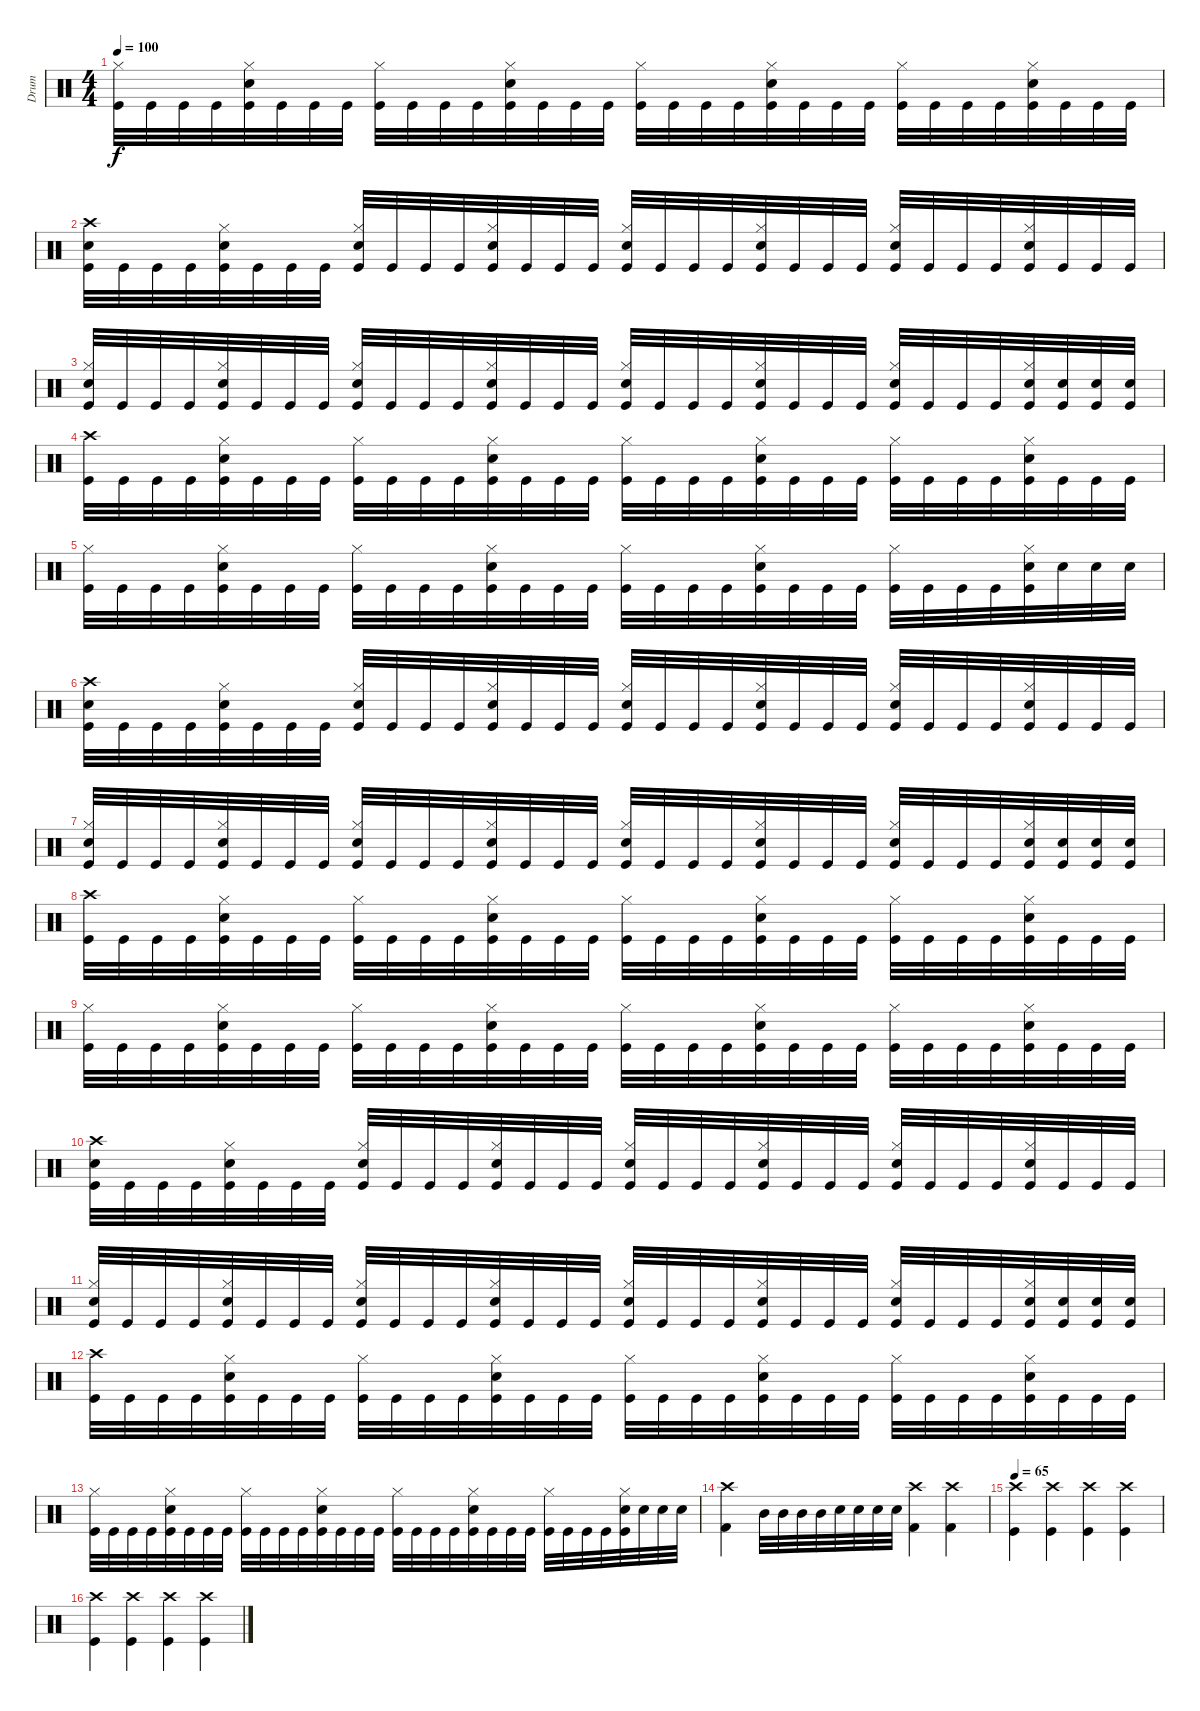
\track ("Drum" "Drum") {instrument percussion}
\staff {score}
\articulation defaults
\ts (4 4)
\tempo 100
\clef neutral
\ks c
("Kick (hit)" "Hi-Hat (closed)").32{dy f} "Kick (hit)".32 "Kick (hit)".32 "Kick (hit)".32 ("Kick (hit)" "Snare (hit) 2" "Hi-Hat (closed)").32 "Kick (hit)".32 "Kick (hit)".32 "Kick (hit)".32 ("Kick (hit)" "Hi-Hat (closed)").32 "Kick (hit)".32 "Kick (hit)".32 "Kick (hit)".32 ("Kick (hit)" "Hi-Hat (closed)" "Snare (hit) 2").32 "Kick (hit)".32 "Kick (hit)".32 "Kick (hit)".32 ("Kick (hit)" "Hi-Hat (closed)").32 "Kick (hit)".32 "Kick (hit)".32 "Kick (hit)".32 ("Snare (hit) 2" "Kick (hit)" "Hi-Hat (closed)").32 "Kick (hit)".32 "Kick (hit)".32 "Kick (hit)".32 ("Kick (hit)" "Hi-Hat (closed)").32 "Kick (hit)".32 "Kick (hit)".32 "Kick (hit)".32 ("Kick (hit)" "Snare (hit) 2" "Hi-Hat (closed)").32 "Kick (hit)".32 "Kick (hit)".32 "Kick (hit)".32 |
("Kick (hit)" "Snare (hit) 2" "Crash high (hit)").32 "Kick (hit)".32 "Kick (hit)".32 "Kick (hit)".32 ("Kick (hit)" "Snare (hit) 2" "Hi-Hat (closed)").32 "Kick (hit)".32 "Kick (hit)".32 "Kick (hit)".32 ("Snare (hit) 2" "Kick (hit)" "Hi-Hat (closed)").32 "Kick (hit)".32 "Kick (hit)".32 "Kick (hit)".32 ("Kick (hit)" "Hi-Hat (closed)" "Snare (hit) 2").32 "Kick (hit)".32 "Kick (hit)".32 "Kick (hit)".32 ("Kick (hit)" "Snare (hit) 2" "Hi-Hat (closed)").32 "Kick (hit)".32 "Kick (hit)".32 "Kick (hit)".32 ("Snare (hit) 2" "Kick (hit)" "Hi-Hat (closed)").32 "Kick (hit)".32 "Kick (hit)".32 "Kick (hit)".32 ("Kick (hit)" "Snare (hit) 2" "Hi-Hat (closed)").32 "Kick (hit)".32 "Kick (hit)".32 "Kick (hit)".32 ("Kick (hit)" "Snare (hit) 2" "Hi-Hat (closed)").32 "Kick (hit)".32 "Kick (hit)".32 "Kick (hit)".32 |
("Kick (hit)" "Snare (hit) 2" "Hi-Hat (closed)").32 "Kick (hit)".32 "Kick (hit)".32 "Kick (hit)".32 ("Kick (hit)" "Snare (hit) 2" "Hi-Hat (closed)").32 "Kick (hit)".32 "Kick (hit)".32 "Kick (hit)".32 ("Snare (hit) 2" "Kick (hit)" "Hi-Hat (closed)").32 "Kick (hit)".32 "Kick (hit)".32 "Kick (hit)".32 ("Kick (hit)" "Hi-Hat (closed)" "Snare (hit) 2").32 "Kick (hit)".32 "Kick (hit)".32 "Kick (hit)".32 ("Kick (hit)" "Snare (hit) 2" "Hi-Hat (closed)").32 "Kick (hit)".32 "Kick (hit)".32 "Kick (hit)".32 ("Snare (hit) 2" "Kick (hit)" "Hi-Hat (closed)").32 "Kick (hit)".32 "Kick (hit)".32 "Kick (hit)".32 ("Kick (hit)" "Snare (hit) 2" "Hi-Hat (closed)").32 "Kick (hit)".32 "Kick (hit)".32 "Kick (hit)".32 ("Kick (hit)" "Hi-Hat (closed)" "Snare (hit) 2").32 ("Kick (hit)" "Snare (hit) 2").32 ("Kick (hit)" "Snare (hit) 2").32 ("Kick (hit)" "Snare (hit) 2").32 |
("Kick (hit)" "Crash high (hit)").32 "Kick (hit)".32 "Kick (hit)".32 "Kick (hit)".32 ("Kick (hit)" "Snare (hit) 2" "Hi-Hat (closed)").32 "Kick (hit)".32 "Kick (hit)".32 "Kick (hit)".32 ("Kick (hit)" "Hi-Hat (closed)").32 "Kick (hit)".32 "Kick (hit)".32 "Kick (hit)".32 ("Kick (hit)" "Hi-Hat (closed)" "Snare (hit) 2").32 "Kick (hit)".32 "Kick (hit)".32 "Kick (hit)".32 ("Kick (hit)" "Hi-Hat (closed)").32 "Kick (hit)".32 "Kick (hit)".32 "Kick (hit)".32 ("Snare (hit) 2" "Kick (hit)" "Hi-Hat (closed)").32 "Kick (hit)".32 "Kick (hit)".32 "Kick (hit)".32 ("Kick (hit)" "Hi-Hat (closed)").32 "Kick (hit)".32 "Kick (hit)".32 "Kick (hit)".32 ("Kick (hit)" "Snare (hit) 2" "Hi-Hat (closed)").32 "Kick (hit)".32 "Kick (hit)".32 "Kick (hit)".32 |
("Kick (hit)" "Hi-Hat (closed)").32 "Kick (hit)".32 "Kick (hit)".32 "Kick (hit)".32 ("Kick (hit)" "Snare (hit) 2" "Hi-Hat (closed)").32 "Kick (hit)".32 "Kick (hit)".32 "Kick (hit)".32 ("Kick (hit)" "Hi-Hat (closed)").32 "Kick (hit)".32 "Kick (hit)".32 "Kick (hit)".32 ("Kick (hit)" "Hi-Hat (closed)" "Snare (hit) 2").32 "Kick (hit)".32 "Kick (hit)".32 "Kick (hit)".32 ("Kick (hit)" "Hi-Hat (closed)").32 "Kick (hit)".32 "Kick (hit)".32 "Kick (hit)".32 ("Snare (hit) 2" "Kick (hit)" "Hi-Hat (closed)").32 "Kick (hit)".32 "Kick (hit)".32 "Kick (hit)".32 ("Kick (hit)" "Hi-Hat (closed)").32 "Kick (hit)".32 "Kick (hit)".32 "Kick (hit)".32 ("Kick (hit)" "Snare (hit) 2" "Hi-Hat (closed)").32 "Snare (hit) 2".32 "Snare (hit) 2".32 "Snare (hit) 2".32 |
("Kick (hit)" "Snare (hit) 2" "Crash high (hit)").32 "Kick (hit)".32 "Kick (hit)".32 "Kick (hit)".32 ("Kick (hit)" "Snare (hit) 2" "Hi-Hat (closed)").32 "Kick (hit)".32 "Kick (hit)".32 "Kick (hit)".32 ("Snare (hit) 2" "Kick (hit)" "Hi-Hat (closed)").32 "Kick (hit)".32 "Kick (hit)".32 "Kick (hit)".32 ("Kick (hit)" "Hi-Hat (closed)" "Snare (hit) 2").32 "Kick (hit)".32 "Kick (hit)".32 "Kick (hit)".32 ("Kick (hit)" "Snare (hit) 2" "Hi-Hat (closed)").32 "Kick (hit)".32 "Kick (hit)".32 "Kick (hit)".32 ("Snare (hit) 2" "Kick (hit)" "Hi-Hat (closed)").32 "Kick (hit)".32 "Kick (hit)".32 "Kick (hit)".32 ("Kick (hit)" "Snare (hit) 2" "Hi-Hat (closed)").32 "Kick (hit)".32 "Kick (hit)".32 "Kick (hit)".32 ("Kick (hit)" "Snare (hit) 2" "Hi-Hat (closed)").32 "Kick (hit)".32 "Kick (hit)".32 "Kick (hit)".32 |
("Kick (hit)" "Snare (hit) 2" "Hi-Hat (closed)").32 "Kick (hit)".32 "Kick (hit)".32 "Kick (hit)".32 ("Kick (hit)" "Snare (hit) 2" "Hi-Hat (closed)").32 "Kick (hit)".32 "Kick (hit)".32 "Kick (hit)".32 ("Snare (hit) 2" "Kick (hit)" "Hi-Hat (closed)").32 "Kick (hit)".32 "Kick (hit)".32 "Kick (hit)".32 ("Kick (hit)" "Hi-Hat (closed)" "Snare (hit) 2").32 "Kick (hit)".32 "Kick (hit)".32 "Kick (hit)".32 ("Kick (hit)" "Snare (hit) 2" "Hi-Hat (closed)").32 "Kick (hit)".32 "Kick (hit)".32 "Kick (hit)".32 ("Snare (hit) 2" "Kick (hit)" "Hi-Hat (closed)").32 "Kick (hit)".32 "Kick (hit)".32 "Kick (hit)".32 ("Kick (hit)" "Snare (hit) 2" "Hi-Hat (closed)").32 "Kick (hit)".32 "Kick (hit)".32 "Kick (hit)".32 ("Kick (hit)" "Snare (hit) 2" "Hi-Hat (closed)").32 ("Kick (hit)" "Snare (hit) 2").32 ("Kick (hit)" "Snare (hit) 2").32 ("Kick (hit)" "Snare (hit) 2").32 |
("Kick (hit)" "Crash high (hit)").32 "Kick (hit)".32 "Kick (hit)".32 "Kick (hit)".32 ("Kick (hit)" "Snare (hit) 2" "Hi-Hat (closed)").32 "Kick (hit)".32 "Kick (hit)".32 "Kick (hit)".32 ("Kick (hit)" "Hi-Hat (closed)").32 "Kick (hit)".32 "Kick (hit)".32 "Kick (hit)".32 ("Kick (hit)" "Hi-Hat (closed)" "Snare (hit) 2").32 "Kick (hit)".32 "Kick (hit)".32 "Kick (hit)".32 ("Kick (hit)" "Hi-Hat (closed)").32 "Kick (hit)".32 "Kick (hit)".32 "Kick (hit)".32 ("Snare (hit) 2" "Kick (hit)" "Hi-Hat (closed)").32 "Kick (hit)".32 "Kick (hit)".32 "Kick (hit)".32 ("Kick (hit)" "Hi-Hat (closed)").32 "Kick (hit)".32 "Kick (hit)".32 "Kick (hit)".32 ("Kick (hit)" "Snare (hit) 2" "Hi-Hat (closed)").32 "Kick (hit)".32 "Kick (hit)".32 "Kick (hit)".32 |
("Kick (hit)" "Hi-Hat (closed)").32 "Kick (hit)".32 "Kick (hit)".32 "Kick (hit)".32 ("Kick (hit)" "Snare (hit) 2" "Hi-Hat (closed)").32 "Kick (hit)".32 "Kick (hit)".32 "Kick (hit)".32 ("Kick (hit)" "Hi-Hat (closed)").32 "Kick (hit)".32 "Kick (hit)".32 "Kick (hit)".32 ("Kick (hit)" "Hi-Hat (closed)" "Snare (hit) 2").32 "Kick (hit)".32 "Kick (hit)".32 "Kick (hit)".32 ("Kick (hit)" "Hi-Hat (closed)").32 "Kick (hit)".32 "Kick (hit)".32 "Kick (hit)".32 ("Snare (hit) 2" "Kick (hit)" "Hi-Hat (closed)").32 "Kick (hit)".32 "Kick (hit)".32 "Kick (hit)".32 ("Kick (hit)" "Hi-Hat (closed)").32 "Kick (hit)".32 "Kick (hit)".32 "Kick (hit)".32 ("Kick (hit)" "Snare (hit) 2" "Hi-Hat (closed)").32 "Kick (hit)".32 "Kick (hit)".32 "Kick (hit)".32 |
("Kick (hit)" "Snare (hit) 2" "Crash high (hit)").32 "Kick (hit)".32 "Kick (hit)".32 "Kick (hit)".32 ("Kick (hit)" "Snare (hit) 2" "Hi-Hat (closed)").32 "Kick (hit)".32 "Kick (hit)".32 "Kick (hit)".32 ("Snare (hit) 2" "Kick (hit)" "Hi-Hat (closed)").32 "Kick (hit)".32 "Kick (hit)".32 "Kick (hit)".32 ("Kick (hit)" "Hi-Hat (closed)" "Snare (hit) 2").32 "Kick (hit)".32 "Kick (hit)".32 "Kick (hit)".32 ("Kick (hit)" "Snare (hit) 2" "Hi-Hat (closed)").32 "Kick (hit)".32 "Kick (hit)".32 "Kick (hit)".32 ("Snare (hit) 2" "Kick (hit)" "Hi-Hat (closed)").32 "Kick (hit)".32 "Kick (hit)".32 "Kick (hit)".32 ("Kick (hit)" "Snare (hit) 2" "Hi-Hat (closed)").32 "Kick (hit)".32 "Kick (hit)".32 "Kick (hit)".32 ("Kick (hit)" "Snare (hit) 2" "Hi-Hat (closed)").32 "Kick (hit)".32 "Kick (hit)".32 "Kick (hit)".32 |
("Kick (hit)" "Snare (hit) 2" "Hi-Hat (closed)").32 "Kick (hit)".32 "Kick (hit)".32 "Kick (hit)".32 ("Kick (hit)" "Snare (hit) 2" "Hi-Hat (closed)").32 "Kick (hit)".32 "Kick (hit)".32 "Kick (hit)".32 ("Snare (hit) 2" "Kick (hit)" "Hi-Hat (closed)").32 "Kick (hit)".32 "Kick (hit)".32 "Kick (hit)".32 ("Kick (hit)" "Hi-Hat (closed)" "Snare (hit) 2").32 "Kick (hit)".32 "Kick (hit)".32 "Kick (hit)".32 ("Kick (hit)" "Snare (hit) 2" "Hi-Hat (closed)").32 "Kick (hit)".32 "Kick (hit)".32 "Kick (hit)".32 ("Snare (hit) 2" "Kick (hit)" "Hi-Hat (closed)").32 "Kick (hit)".32 "Kick (hit)".32 "Kick (hit)".32 ("Kick (hit)" "Snare (hit) 2" "Hi-Hat (closed)").32 "Kick (hit)".32 "Kick (hit)".32 "Kick (hit)".32 ("Kick (hit)" "Hi-Hat (closed)" "Snare (hit) 2").32 ("Kick (hit)" "Snare (hit) 2").32 ("Kick (hit)" "Snare (hit) 2").32 ("Kick (hit)" "Snare (hit) 2").32 |
("Kick (hit)" "Crash high (hit)").32 "Kick (hit)".32 "Kick (hit)".32 "Kick (hit)".32 ("Kick (hit)" "Snare (hit) 2" "Hi-Hat (closed)").32 "Kick (hit)".32 "Kick (hit)".32 "Kick (hit)".32 ("Kick (hit)" "Hi-Hat (closed)").32 "Kick (hit)".32 "Kick (hit)".32 "Kick (hit)".32 ("Kick (hit)" "Hi-Hat (closed)" "Snare (hit) 2").32 "Kick (hit)".32 "Kick (hit)".32 "Kick (hit)".32 ("Kick (hit)" "Hi-Hat (closed)").32 "Kick (hit)".32 "Kick (hit)".32 "Kick (hit)".32 ("Snare (hit) 2" "Kick (hit)" "Hi-Hat (closed)").32 "Kick (hit)".32 "Kick (hit)".32 "Kick (hit)".32 ("Kick (hit)" "Hi-Hat (closed)").32 "Kick (hit)".32 "Kick (hit)".32 "Kick (hit)".32 ("Kick (hit)" "Snare (hit) 2" "Hi-Hat (closed)").32 "Kick (hit)".32 "Kick (hit)".32 "Kick (hit)".32 |
("Kick (hit)" "Hi-Hat (closed)").32 "Kick (hit)".32 "Kick (hit)".32 "Kick (hit)".32 ("Kick (hit)" "Snare (hit) 2" "Hi-Hat (closed)").32 "Kick (hit)".32 "Kick (hit)".32 "Kick (hit)".32 ("Kick (hit)" "Hi-Hat (closed)").32 "Kick (hit)".32 "Kick (hit)".32 "Kick (hit)".32 ("Kick (hit)" "Hi-Hat (closed)" "Snare (hit) 2").32 "Kick (hit)".32 "Kick (hit)".32 "Kick (hit)".32 ("Kick (hit)" "Hi-Hat (closed)").32 "Kick (hit)".32 "Kick (hit)".32 "Kick (hit)".32 ("Snare (hit) 2" "Kick (hit)" "Hi-Hat (closed)").32 "Kick (hit)".32 "Kick (hit)".32 "Kick (hit)".32 ("Kick (hit)" "Hi-Hat (closed)").32 "Kick (hit)".32 "Kick (hit)".32 "Kick (hit)".32 ("Kick (hit)" "Snare (hit) 2" "Hi-Hat (closed)").32 "Snare (hit) 2".32 "Snare (hit) 2".32 "Snare (hit) 2".32 |
("Kick (hit) 2" "Crash high (hit)").4 "Mid Tom (hit)".32 "Mid Tom (hit)".32 "Mid Tom (hit)".32 "Mid Tom (hit)".32 "Snare (hit) 2".32 "Snare (hit) 2".32 "Snare (hit) 2".32 "Snare (hit) 2".32 ("Kick (hit) 2" "Crash high (hit)").4 ("Kick (hit) 2" "Crash high (hit)").4 |
\tempo 65
("Kick (hit)" "Crash high (hit)").4 ("Kick (hit)" "Crash high (hit)").4 ("Kick (hit)" "Crash high (hit)").4 ("Kick (hit)" "Crash high (hit)").4 |
("Kick (hit)" "Crash high (hit)").4 ("Kick (hit)" "Crash high (hit)").4 ("Kick (hit)" "Crash high (hit)").4 ("Kick (hit)" "Crash high (hit)").4
